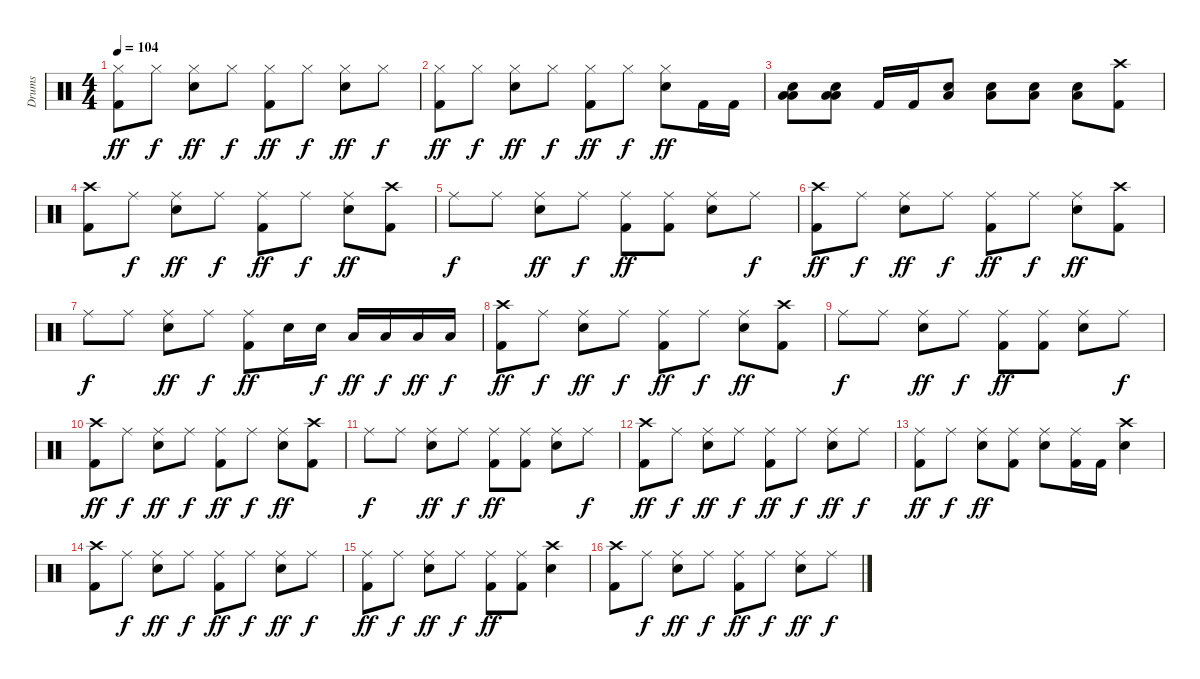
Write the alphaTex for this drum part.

\track ("Drums" "Drums") {instrument percussion}
\staff {score}
\articulation defaults
\ts (4 4)
\tempo 104
\clef neutral
\ks c
("Hi-Hat (closed)" "Kick (hit) 2").8{dy ff} "Hi-Hat (closed)".8{dy f} ("Hi-Hat (closed)" "Snare (hit) 2").8{dy ff} "Hi-Hat (closed)".8{dy f} ("Hi-Hat (closed)" "Kick (hit) 2").8{dy ff} "Hi-Hat (closed)".8{dy f} ("Hi-Hat (closed)" "Snare (hit) 2").8{dy ff} "Hi-Hat (closed)".8{dy f} |
("Hi-Hat (closed)" "Kick (hit) 2").8{dy ff} "Hi-Hat (closed)".8{dy f} ("Hi-Hat (closed)" "Snare (hit) 2").8{dy ff} "Hi-Hat (closed)".8{dy f} ("Hi-Hat (closed)" "Kick (hit) 2").8{dy ff} "Hi-Hat (closed)".8{dy f} ("Hi-Hat (closed)" "Snare (hit) 2").8{dy ff} "Kick (hit) 2".16 "Kick (hit) 2".16 |
("Low Tom (hit)" "Snare (hit) 2" "Low Floor Tom (hit)").8 ("Low Tom (hit)" "Snare (hit) 2" "Low Floor Tom (hit)").8 "Kick (hit) 2".16 "Kick (hit) 2".16 ("Snare (hit) 2" "Low Floor Tom (hit)").8 ("Snare (hit) 2" "Low Floor Tom (hit)").8 ("Snare (hit) 2" "Low Floor Tom (hit)").8 ("Snare (hit) 2" "Low Floor Tom (hit)").8 ("Crash high (hit)" "Kick (hit) 2").8 |
("Crash high (hit)" "Kick (hit) 2").8 "Ride (middle)".8{dy f} ("Ride (middle)" "Snare (hit) 2").8{dy ff} "Ride (middle)".8{dy f} ("Ride (middle)" "Kick (hit) 2").8{dy ff} "Ride (middle)".8{dy f} ("Ride (middle)" "Snare (hit) 2").8{dy ff} ("Crash high (hit)" "Kick (hit) 2").8 |
"Ride (middle)".8{dy f} "Ride (middle)".8 ("Ride (middle)" "Snare (hit) 2").8{dy ff} "Ride (middle)".8{dy f} ("Ride (middle)" "Kick (hit) 2").8{dy ff} ("Ride (middle)" "Kick (hit) 2").8 ("Ride (middle)" "Snare (hit) 2").8 "Ride (middle)".8{dy f} |
("Crash high (hit)" "Kick (hit) 2").8{dy ff} "Ride (middle)".8{dy f} ("Ride (middle)" "Snare (hit) 2").8{dy ff} "Ride (middle)".8{dy f} ("Ride (middle)" "Kick (hit) 2").8{dy ff} "Ride (middle)".8{dy f} ("Ride (middle)" "Snare (hit) 2").8{dy ff} ("Crash high (hit)" "Kick (hit) 2").8 |
"Ride (middle)".8{dy f} "Ride (middle)".8 ("Ride (middle)" "Snare (hit) 2").8{dy ff} "Ride (middle)".8{dy f} ("Ride (middle)" "Kick (hit) 2").8{dy ff} "Snare (hit) 2".16 "Snare (hit) 2".16{dy f} "Low Tom (hit)".16{dy ff} "Low Tom (hit)".16{dy f} "Low Floor Tom (hit)".16{dy ff} "Low Floor Tom (hit)".16{dy f} |
("Crash high (hit)" "Kick (hit) 2").8{dy ff} "Ride (middle)".8{dy f} ("Ride (middle)" "Snare (hit) 2").8{dy ff} "Ride (middle)".8{dy f} ("Ride (middle)" "Kick (hit) 2").8{dy ff} "Ride (middle)".8{dy f} ("Ride (middle)" "Snare (hit) 2").8{dy ff} ("Crash high (hit)" "Kick (hit) 2").8 |
"Ride (middle)".8{dy f} "Ride (middle)".8 ("Ride (middle)" "Snare (hit) 2").8{dy ff} "Ride (middle)".8{dy f} ("Ride (middle)" "Kick (hit) 2").8{dy ff} ("Ride (middle)" "Kick (hit) 2").8 ("Ride (middle)" "Snare (hit) 2").8 "Ride (middle)".8{dy f} |
("Crash high (hit)" "Kick (hit) 2").8{dy ff} "Ride (middle)".8{dy f} ("Ride (middle)" "Snare (hit) 2").8{dy ff} "Ride (middle)".8{dy f} ("Ride (middle)" "Kick (hit) 2").8{dy ff} "Ride (middle)".8{dy f} ("Ride (middle)" "Snare (hit) 2").8{dy ff} ("Crash high (hit)" "Kick (hit) 2").8 |
"Ride (middle)".8{dy f} "Ride (middle)".8 ("Ride (middle)" "Snare (hit) 2").8{dy ff} "Ride (middle)".8{dy f} ("Ride (middle)" "Kick (hit) 2").8{dy ff} ("Ride (middle)" "Kick (hit) 2").8 ("Ride (middle)" "Snare (hit) 2").8 "Ride (middle)".8{dy f} |
("Crash high (hit)" "Kick (hit) 2").8{dy ff} "Ride (middle)".8{dy f} ("Ride (middle)" "Snare (hit) 2").8{dy ff} "Ride (middle)".8{dy f} ("Ride (middle)" "Kick (hit) 2").8{dy ff} "Ride (middle)".8{dy f} ("Ride (middle)" "Snare (hit) 2").8{dy ff} "Ride (middle)".8{dy f} |
("Ride (middle)" "Kick (hit) 2").8{dy ff} "Ride (middle)".8{dy f} ("Ride (middle)" "Snare (hit) 2").8{dy ff} ("Ride (middle)" "Kick (hit) 2").8 ("Ride (middle)" "Snare (hit) 2").8 ("Ride (middle)" "Kick (hit) 2").16 "Kick (hit) 2".16 ("Crash high (hit)" "Snare (hit) 2").4 |
("Crash high (hit)" "Kick (hit) 2").8 "Ride (middle)".8{dy f} ("Ride (middle)" "Snare (hit) 2").8{dy ff} "Ride (middle)".8{dy f} ("Ride (middle)" "Kick (hit) 2").8{dy ff} "Ride (middle)".8{dy f} ("Ride (middle)" "Snare (hit) 2").8{dy ff} "Ride (middle)".8{dy f} |
("Ride (middle)" "Kick (hit) 2").8{dy ff} "Ride (middle)".8{dy f} ("Ride (middle)" "Snare (hit) 2").8{dy ff} "Ride (middle)".8{dy f} ("Ride (middle)" "Kick (hit) 2").8{dy ff} ("Ride (middle)" "Kick (hit) 2").8 ("Crash high (hit)" "Snare (hit) 2").4 |
("Crash high (hit)" "Kick (hit) 2").8 "Ride (middle)".8{dy f} ("Ride (middle)" "Snare (hit) 2").8{dy ff} "Ride (middle)".8{dy f} ("Ride (middle)" "Kick (hit) 2").8{dy ff} "Ride (middle)".8{dy f} ("Ride (middle)" "Snare (hit) 2").8{dy ff} "Ride (middle)".8{dy f}
